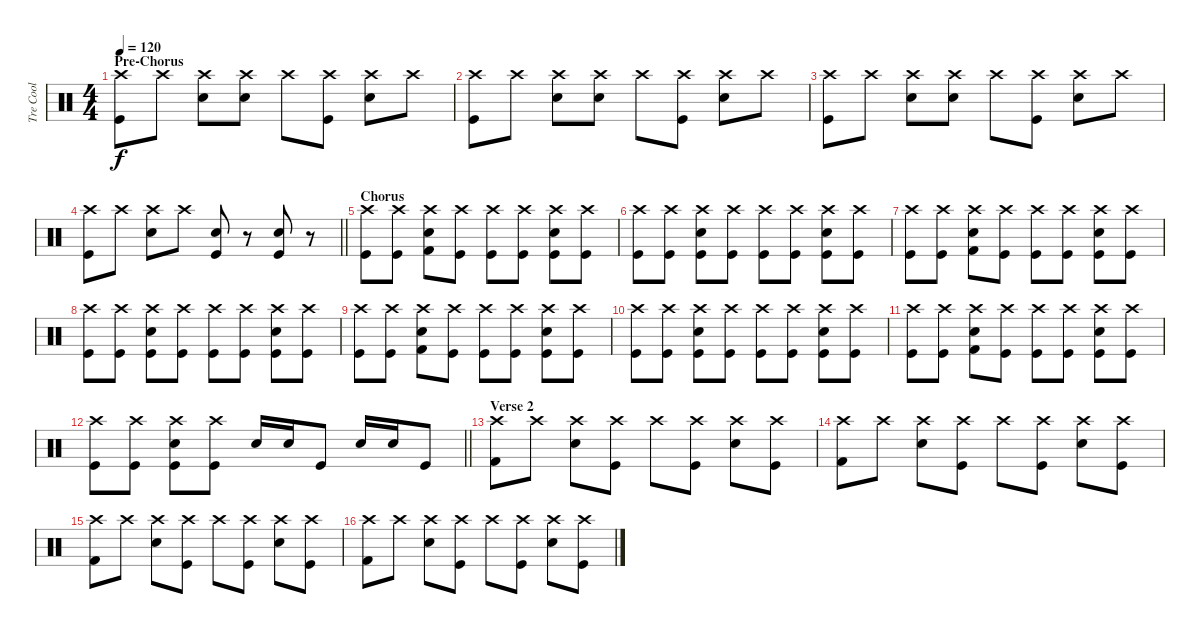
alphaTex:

\track ("Tre Cool" "Tre Cool") {instrument percussion}
\staff {score}
\articulation defaults
\ts (4 4)
\section ("" "Pre-Chorus")
\tempo 120
\clef neutral
\ks c
("Crash high (hit)" "Kick (hit)").8{dy f} "Crash high (hit)".8 ("Crash high (hit)" "Snare (hit) 2").8 ("Crash high (hit)" "Snare (hit) 2").8 "Crash high (hit)".8 ("Crash high (hit)" "Kick (hit)").8 ("Crash high (hit)" "Snare (hit) 2").8 "Crash high (hit)".8 |
("Crash high (hit)" "Kick (hit)").8 "Crash high (hit)".8 ("Crash high (hit)" "Snare (hit) 2").8 ("Crash high (hit)" "Snare (hit) 2").8 "Crash high (hit)".8 ("Crash high (hit)" "Kick (hit)").8 ("Crash high (hit)" "Snare (hit) 2").8 "Crash high (hit)".8 |
("Crash high (hit)" "Kick (hit)").8 "Crash high (hit)".8 ("Crash high (hit)" "Snare (hit) 2").8 ("Crash high (hit)" "Snare (hit) 2").8 "Crash high (hit)".8 ("Crash high (hit)" "Kick (hit)").8 ("Crash high (hit)" "Snare (hit) 2").8 "Crash high (hit)".8 |
\barLineRight lightlight
("Crash high (hit)" "Kick (hit)").8 "Crash high (hit)".8 ("Crash high (hit)" "Snare (hit) 2").8 "Crash high (hit)".8 ("Kick (hit)" "Snare (hit) 2").8 r.8 ("Snare (hit) 2" "Kick (hit)").8 r.8 |
\section ("" "Chorus")
("Crash high (hit)" "Kick (hit)").8 ("Crash high (hit)" "Kick (hit)").8 ("Crash high (hit)" "Snare (hit) 2" "Kick (hit) 2").8 ("Crash high (hit)" "Kick (hit)").8 ("Crash high (hit)" "Kick (hit)").8 ("Crash high (hit)" "Kick (hit)").8 ("Crash high (hit)" "Snare (hit) 2" "Kick (hit)").8 ("Crash high (hit)" "Kick (hit)").8 |
("Crash high (hit)" "Kick (hit)").8 ("Crash high (hit)" "Kick (hit)").8 ("Crash high (hit)" "Snare (hit) 2" "Kick (hit)").8 ("Crash high (hit)" "Kick (hit)").8 ("Crash high (hit)" "Kick (hit)").8 ("Crash high (hit)" "Kick (hit)").8 ("Crash high (hit)" "Snare (hit) 2" "Kick (hit)").8 ("Crash high (hit)" "Kick (hit)").8 |
("Crash high (hit)" "Kick (hit)").8 ("Crash high (hit)" "Kick (hit)").8 ("Crash high (hit)" "Snare (hit) 2" "Kick (hit) 2").8 ("Crash high (hit)" "Kick (hit)").8 ("Crash high (hit)" "Kick (hit)").8 ("Crash high (hit)" "Kick (hit)").8 ("Crash high (hit)" "Snare (hit) 2" "Kick (hit)").8 ("Crash high (hit)" "Kick (hit)").8 |
("Crash high (hit)" "Kick (hit)").8 ("Crash high (hit)" "Kick (hit)").8 ("Crash high (hit)" "Snare (hit) 2" "Kick (hit)").8 ("Crash high (hit)" "Kick (hit)").8 ("Crash high (hit)" "Kick (hit)").8 ("Crash high (hit)" "Kick (hit)").8 ("Crash high (hit)" "Snare (hit) 2" "Kick (hit)").8 ("Crash high (hit)" "Kick (hit)").8 |
("Crash high (hit)" "Kick (hit)").8 ("Crash high (hit)" "Kick (hit)").8 ("Crash high (hit)" "Snare (hit) 2" "Kick (hit) 2").8 ("Crash high (hit)" "Kick (hit)").8 ("Crash high (hit)" "Kick (hit)").8 ("Crash high (hit)" "Kick (hit)").8 ("Crash high (hit)" "Snare (hit) 2" "Kick (hit)").8 ("Crash high (hit)" "Kick (hit)").8 |
("Crash high (hit)" "Kick (hit)").8 ("Crash high (hit)" "Kick (hit)").8 ("Crash high (hit)" "Snare (hit) 2" "Kick (hit)").8 ("Crash high (hit)" "Kick (hit)").8 ("Crash high (hit)" "Kick (hit)").8 ("Crash high (hit)" "Kick (hit)").8 ("Crash high (hit)" "Snare (hit) 2" "Kick (hit)").8 ("Crash high (hit)" "Kick (hit)").8 |
("Crash high (hit)" "Kick (hit)").8 ("Crash high (hit)" "Kick (hit)").8 ("Crash high (hit)" "Snare (hit) 2" "Kick (hit) 2").8 ("Crash high (hit)" "Kick (hit)").8 ("Crash high (hit)" "Kick (hit)").8 ("Crash high (hit)" "Kick (hit)").8 ("Crash high (hit)" "Snare (hit) 2" "Kick (hit)").8 ("Crash high (hit)" "Kick (hit)").8 |
\barLineRight lightlight
("Crash high (hit)" "Kick (hit)").8 ("Crash high (hit)" "Kick (hit)").8 ("Crash high (hit)" "Snare (hit) 2" "Kick (hit)").8 ("Crash high (hit)" "Kick (hit)").8 "Snare (hit) 2".16 "Snare (hit) 2".16 "Kick (hit)".8 "Snare (hit) 2".16 "Snare (hit) 2".16 "Kick (hit)".8 |
\section ("" "Verse 2")
("Crash high (hit)" "Kick (hit) 2").8 "Crash high (hit)".8 ("Crash high (hit)" "Snare (hit) 2").8 ("Crash high (hit)" "Kick (hit)").8 "Crash high (hit)".8 ("Crash high (hit)" "Kick (hit)").8 ("Crash high (hit)" "Snare (hit) 2").8 ("Crash high (hit)" "Kick (hit)").8 |
("Crash high (hit)" "Kick (hit) 2").8 "Crash high (hit)".8 ("Crash high (hit)" "Snare (hit) 2").8 ("Crash high (hit)" "Kick (hit)").8 "Crash high (hit)".8 ("Crash high (hit)" "Kick (hit)").8 ("Crash high (hit)" "Snare (hit) 2").8 ("Crash high (hit)" "Kick (hit)").8 |
("Crash high (hit)" "Kick (hit) 2").8 "Crash high (hit)".8 ("Crash high (hit)" "Snare (hit) 2").8 ("Crash high (hit)" "Kick (hit)").8 "Crash high (hit)".8 ("Crash high (hit)" "Kick (hit)").8 ("Crash high (hit)" "Snare (hit) 2").8 ("Crash high (hit)" "Kick (hit)").8 |
("Crash high (hit)" "Kick (hit) 2").8 "Crash high (hit)".8 ("Crash high (hit)" "Snare (hit) 2").8 ("Crash high (hit)" "Kick (hit)").8 "Crash high (hit)".8 ("Crash high (hit)" "Kick (hit)").8 ("Crash high (hit)" "Snare (hit) 2").8 ("Crash high (hit)" "Kick (hit)").8
